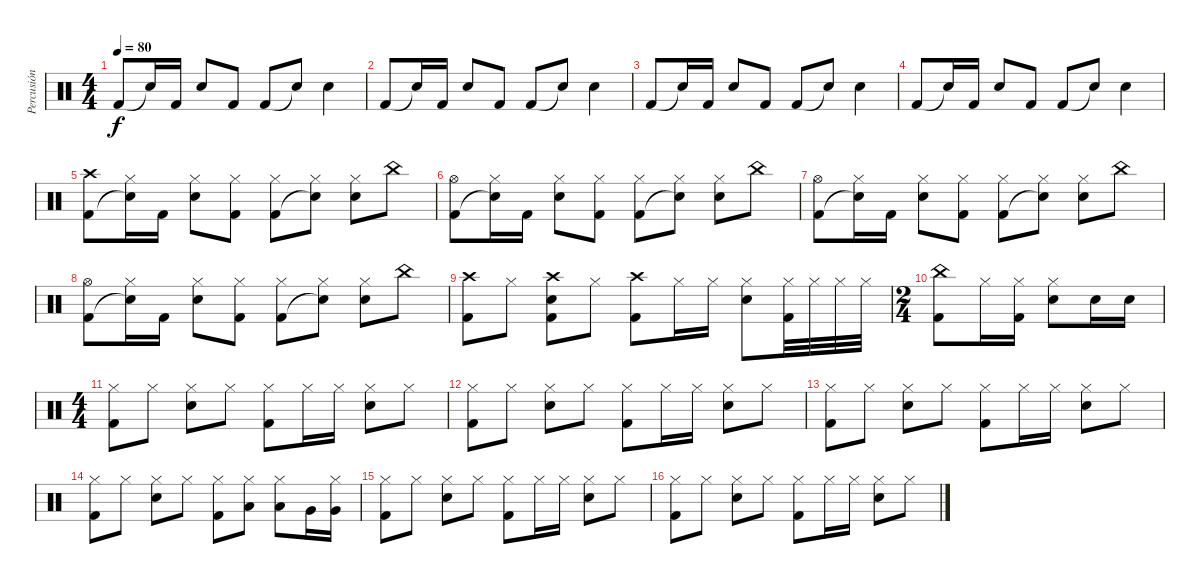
\track ("Percusión" "Percusión") {instrument percussion}
\staff {score}
\articulation defaults
\ts (4 4)
\tempo 80
\clef neutral
\ks c "Kick (hit) 2".8{dy f} "Snare (hit)"{t}.16 "Kick (hit) 2".16 "Electric Snare (hit)".8 "Kick (hit) 2".8 "Kick (hit) 2".8 "Snare (hit)"{t}.8 "Electric Snare (hit)".4
|
"Kick (hit) 2".8 "Snare (hit)"{t}.16 "Kick (hit) 2".16 "Electric Snare (hit)".8 "Kick (hit) 2".8 "Kick (hit) 2".8 "Snare (hit)"{t}.8 "Electric Snare (hit)".4 |
"Kick (hit) 2".8 "Snare (hit)"{t}.16 "Kick (hit) 2".16 "Electric Snare (hit)".8 "Kick (hit) 2".8 "Kick (hit) 2".8 "Snare (hit)"{t}.8 "Electric Snare (hit)".4 |
"Kick (hit) 2".8 "Snare (hit)"{t}.16 "Kick (hit) 2".16 "Electric Snare (hit)".8 "Kick (hit) 2".8 "Kick (hit) 2".8 "Snare (hit)"{t}.8 "Electric Snare (hit)".4 |
("Kick (hit) 2" "Crash high (hit)").8 ("Snare (hit)"{t} "Hi-Hat (closed)").16 "Kick (hit) 2".16 ("Electric Snare (hit)" "Hi-Hat (closed)").8 ("Kick (hit) 2" "Hi-Hat (closed)").8 ("Kick (hit) 2" "Hi-Hat (closed)").8 ("Snare (hit)"{t} "Hi-Hat (closed)").8 ("Electric Snare (hit)" "Hi-Hat (closed)").8 "China (hit)".8 |
("Kick (hit) 2" "Hi-Hat (open)").8 ("Snare (hit)"{t} "Hi-Hat (closed)").16 "Kick (hit) 2".16 ("Electric Snare (hit)" "Hi-Hat (closed)").8 ("Kick (hit) 2" "Hi-Hat (closed)").8 ("Kick (hit) 2" "Hi-Hat (closed)").8 ("Snare (hit)"{t} "Hi-Hat (closed)").8 ("Electric Snare (hit)" "Hi-Hat (closed)").8 "China (hit)".8 |
("Kick (hit) 2" "Hi-Hat (open)").8 ("Snare (hit)"{t} "Hi-Hat (closed)").16 "Kick (hit) 2".16 ("Electric Snare (hit)" "Hi-Hat (closed)").8 ("Kick (hit) 2" "Hi-Hat (closed)").8 ("Kick (hit) 2" "Hi-Hat (closed)").8 ("Snare (hit)"{t} "Hi-Hat (closed)").8 ("Electric Snare (hit)" "Hi-Hat (closed)").8 "China (hit)".8 |
("Kick (hit) 2" "Hi-Hat (open)").8 ("Snare (hit)"{t} "Hi-Hat (closed)").16 "Kick (hit) 2".16 ("Electric Snare (hit)" "Hi-Hat (closed)").8 ("Kick (hit) 2" "Hi-Hat (closed)").8 ("Kick (hit) 2" "Hi-Hat (closed)").8 ("Snare (hit)"{t} "Hi-Hat (closed)").8 ("Electric Snare (hit)" "Hi-Hat (closed)").8 "China (hit)".8 |
("Kick (hit) 2" "Crash high (hit)").8 "Hi-Hat (closed)".8 ("Kick (hit) 2" "Crash high (hit)" "Electric Snare (hit)").8 "Hi-Hat (closed)".8 ("Kick (hit) 2" "Crash high (hit)").8 "Hi-Hat (closed)".16 "Hi-Hat (closed)".16 ("Hi-Hat (closed)" "Electric Snare (hit)").8 ("Kick (hit) 2" "Hi-Hat (closed)").32 "Hi-Hat (closed)".32 "Hi-Hat (closed)".32 "Hi-Hat (closed)".32 |
\ts (2 4)
("Kick (hit) 2" "China (hit)").8 "Hi-Hat (closed)".16 ("Kick (hit) 2" "Hi-Hat (closed)").16 ("Hi-Hat (closed)" "Electric Snare (hit)").8 "Electric Snare (hit)".16 "Electric Snare (hit)".16 |
\ts (4 4)
("Kick (hit) 2" "Hi-Hat (closed)").8 "Hi-Hat (closed)".8 ("Electric Snare (hit)" "Hi-Hat (closed)").8 "Hi-Hat (closed)".8 ("Kick (hit) 2" "Hi-Hat (closed)").8 "Hi-Hat (closed)".16 "Hi-Hat (closed)".16 ("Electric Snare (hit)" "Hi-Hat (closed)").8 "Hi-Hat (closed)".8 |
("Kick (hit) 2" "Hi-Hat (closed)").8 "Hi-Hat (closed)".8 ("Electric Snare (hit)" "Hi-Hat (closed)").8 "Hi-Hat (closed)".8 ("Kick (hit) 2" "Hi-Hat (closed)").8 "Hi-Hat (closed)".16 "Hi-Hat (closed)".16 ("Electric Snare (hit)" "Hi-Hat (closed)").8 "Hi-Hat (closed)".8 |
("Kick (hit) 2" "Hi-Hat (closed)").8 "Hi-Hat (closed)".8 ("Electric Snare (hit)" "Hi-Hat (closed)").8 "Hi-Hat (closed)".8 ("Kick (hit) 2" "Hi-Hat (closed)").8 "Hi-Hat (closed)".16 "Hi-Hat (closed)".16 ("Electric Snare (hit)" "Hi-Hat (closed)").8 "Hi-Hat (closed)".8 |
("Kick (hit) 2" "Hi-Hat (closed)").8 "Hi-Hat (closed)".8 ("Electric Snare (hit)" "Hi-Hat (closed)").8 "Hi-Hat (closed)".8 ("Kick (hit) 2" "Hi-Hat (closed)").8 ("Hi-Hat (closed)" "Low Tom (hit)").8 ("Hi-Hat (closed)" "Low Tom (hit)").8 "Very Low Tom (hit)".16 ("Hi-Hat (closed)" "Very Low Tom (hit)").16 |
("Kick (hit) 2" "Hi-Hat (closed)").8 "Hi-Hat (closed)".8 ("Electric Snare (hit)" "Hi-Hat (closed)").8 "Hi-Hat (closed)".8 ("Kick (hit) 2" "Hi-Hat (closed)").8 "Hi-Hat (closed)".16 "Hi-Hat (closed)".16 ("Electric Snare (hit)" "Hi-Hat (closed)").8 "Hi-Hat (closed)".8 |
("Kick (hit) 2" "Hi-Hat (closed)").8 "Hi-Hat (closed)".8 ("Electric Snare (hit)" "Hi-Hat (closed)").8 "Hi-Hat (closed)".8 ("Kick (hit) 2" "Hi-Hat (closed)").8 "Hi-Hat (closed)".16 "Hi-Hat (closed)".16 ("Electric Snare (hit)" "Hi-Hat (closed)").8 "Hi-Hat (closed)".8
